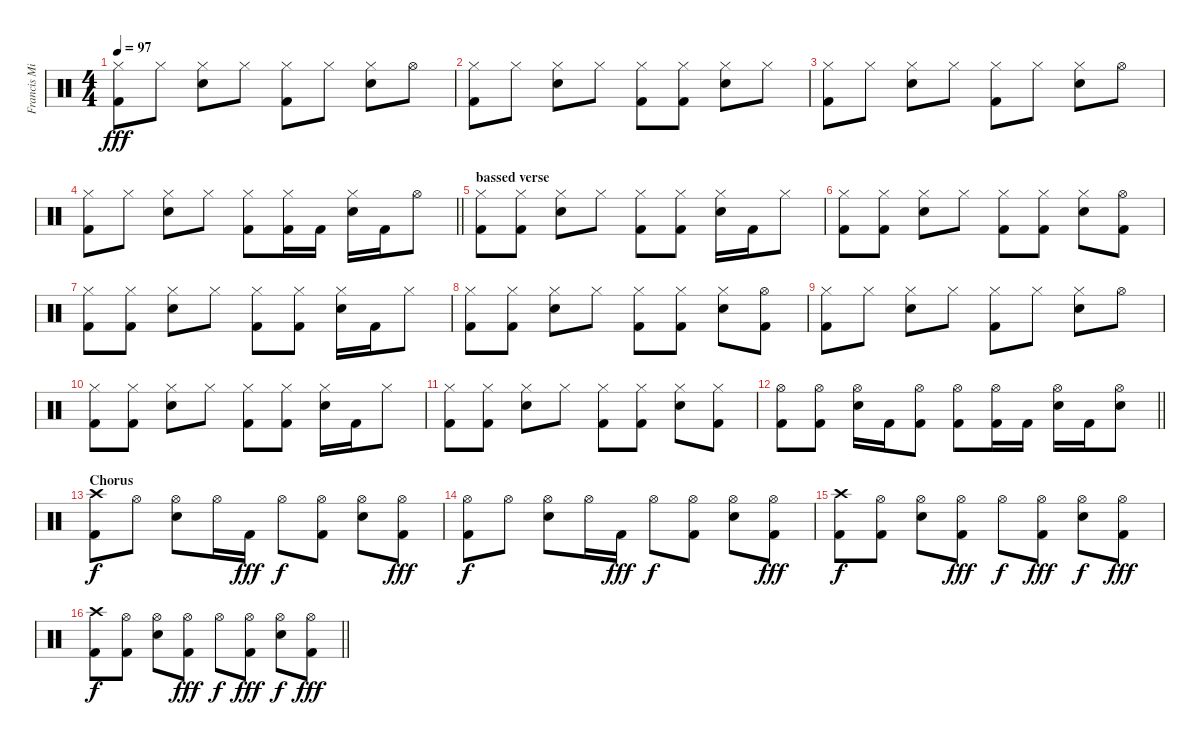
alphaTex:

\track ("Francis Mineau" "Francis Mi") {instrument percussion}
\staff {score}
\articulation defaults
\ts (4 4)
\tempo 97
\clef neutral
\ks c
("Hi-Hat (closed)" "Kick (hit) 2").8{dy fff} "Hi-Hat (closed)".8 ("Hi-Hat (closed)" "Snare (hit) 2").8 "Hi-Hat (closed)".8 ("Hi-Hat (closed)" "Kick (hit) 2").8 "Hi-Hat (closed)".8 ("Hi-Hat (closed)" "Snare (hit) 2").8 "Hi-Hat (open)".8 |
("Hi-Hat (closed)" "Kick (hit) 2").8 "Hi-Hat (closed)".8 ("Hi-Hat (closed)" "Snare (hit) 2").8 "Hi-Hat (closed)".8 ("Hi-Hat (closed)" "Kick (hit) 2").8 ("Hi-Hat (closed)" "Kick (hit) 2").8 ("Hi-Hat (closed)" "Snare (hit) 2").8 "Hi-Hat (closed)".8 |
("Hi-Hat (closed)" "Kick (hit) 2").8 "Hi-Hat (closed)".8 ("Hi-Hat (closed)" "Snare (hit) 2").8 "Hi-Hat (closed)".8 ("Hi-Hat (closed)" "Kick (hit) 2").8 "Hi-Hat (closed)".8 ("Hi-Hat (closed)" "Snare (hit) 2").8 "Hi-Hat (open)".8 |
\barLineRight lightlight
("Hi-Hat (closed)" "Kick (hit) 2").8 "Hi-Hat (closed)".8 ("Hi-Hat (closed)" "Snare (hit) 2").8 "Hi-Hat (closed)".8 ("Hi-Hat (closed)" "Kick (hit) 2").8 ("Hi-Hat (closed)" "Kick (hit) 2").16 "Kick (hit) 2".16 ("Hi-Hat (closed)" "Snare (hit) 2").16 "Kick (hit) 2".16 "Hi-Hat (open)".8 |
\section ("" "bassed verse")
("Hi-Hat (closed)" "Kick (hit) 2").8 ("Hi-Hat (closed)" "Kick (hit) 2").8 ("Hi-Hat (closed)" "Snare (hit) 2").8 "Hi-Hat (closed)".8 ("Hi-Hat (closed)" "Kick (hit) 2").8 ("Hi-Hat (closed)" "Kick (hit) 2").8 ("Hi-Hat (closed)" "Snare (hit) 2").16 "Kick (hit) 2".16 "Hi-Hat (closed)".8 |
("Hi-Hat (closed)" "Kick (hit) 2").8 ("Hi-Hat (closed)" "Kick (hit) 2").8 ("Hi-Hat (closed)" "Snare (hit) 2").8 "Hi-Hat (closed)".8 ("Hi-Hat (closed)" "Kick (hit) 2").8 ("Hi-Hat (closed)" "Kick (hit) 2").8 ("Hi-Hat (closed)" "Snare (hit) 2").8 ("Hi-Hat (open)" "Kick (hit) 2").8 |
("Hi-Hat (closed)" "Kick (hit) 2").8 ("Hi-Hat (closed)" "Kick (hit) 2").8 ("Hi-Hat (closed)" "Snare (hit) 2").8 "Hi-Hat (closed)".8 ("Hi-Hat (closed)" "Kick (hit) 2").8 ("Hi-Hat (closed)" "Kick (hit) 2").8 ("Hi-Hat (closed)" "Snare (hit) 2").16 "Kick (hit) 2".16 "Hi-Hat (closed)".8 |
("Hi-Hat (closed)" "Kick (hit) 2").8 ("Hi-Hat (closed)" "Kick (hit) 2").8 ("Hi-Hat (closed)" "Snare (hit) 2").8 "Hi-Hat (closed)".8 ("Hi-Hat (closed)" "Kick (hit) 2").8 ("Hi-Hat (closed)" "Kick (hit) 2").8 ("Hi-Hat (closed)" "Snare (hit) 2").8 ("Hi-Hat (open)" "Kick (hit) 2").8 |
("Hi-Hat (closed)" "Kick (hit) 2").8 "Hi-Hat (closed)".8 ("Hi-Hat (closed)" "Snare (hit) 2").8 "Hi-Hat (closed)".8 ("Hi-Hat (closed)" "Kick (hit) 2").8 "Hi-Hat (closed)".8 ("Hi-Hat (closed)" "Snare (hit) 2").8 "Hi-Hat (open)".8 |
("Hi-Hat (closed)" "Kick (hit) 2").8 ("Hi-Hat (closed)" "Kick (hit) 2").8 ("Hi-Hat (closed)" "Snare (hit) 2").8 "Hi-Hat (closed)".8 ("Hi-Hat (closed)" "Kick (hit) 2").8 ("Hi-Hat (closed)" "Kick (hit) 2").8 ("Hi-Hat (closed)" "Snare (hit) 2").16 "Kick (hit) 2".16 "Hi-Hat (closed)".8 |
("Hi-Hat (closed)" "Kick (hit) 2").8 ("Hi-Hat (closed)" "Kick (hit) 2").8 ("Hi-Hat (closed)" "Snare (hit) 2").8 "Hi-Hat (closed)".8 ("Hi-Hat (closed)" "Kick (hit) 2").8 ("Hi-Hat (closed)" "Kick (hit) 2").8 ("Hi-Hat (closed)" "Snare (hit) 2").8 ("Hi-Hat (closed)" "Kick (hit) 2").8 |
\barLineRight lightlight
("Hi-Hat (open)" "Kick (hit) 2").8 ("Hi-Hat (open)" "Kick (hit) 2").8 ("Hi-Hat (open)" "Snare (hit) 2").16 "Kick (hit) 2".16 ("Hi-Hat (open)" "Kick (hit) 2").8 ("Hi-Hat (open)" "Kick (hit) 2").8 ("Hi-Hat (open)" "Kick (hit) 2").16 "Kick (hit) 2".16 ("Hi-Hat (open)" "Snare (hit) 2").16 "Kick (hit) 2".16 ("Hi-Hat (open)" "Snare (hit) 2").8 |
\section ("" "Chorus")
("Crash high (hit)" "Kick (hit) 2").8{dy f} "Hi-Hat (open)".8 ("Hi-Hat (open)" "Snare (hit) 2").8 "Hi-Hat (open)".16 "Kick (hit) 2".16{dy fff} "Hi-Hat (open)".8{dy f} ("Hi-Hat (open)" "Kick (hit) 2").8 ("Hi-Hat (open)" "Snare (hit) 2").8 ("Hi-Hat (open)" "Kick (hit) 2").8{dy fff} |
("Hi-Hat (open)" "Kick (hit) 2").8{dy f} "Hi-Hat (open)".8 ("Hi-Hat (open)" "Snare (hit) 2").8 "Hi-Hat (open)".16 "Kick (hit) 2".16{dy fff} "Hi-Hat (open)".8{dy f} ("Hi-Hat (open)" "Kick (hit) 2").8 ("Hi-Hat (open)" "Snare (hit) 2").8 ("Hi-Hat (open)" "Kick (hit) 2").8{dy fff} |
("Crash high (hit)" "Kick (hit) 2").8{dy f} ("Hi-Hat (open)" "Kick (hit) 2").8 ("Hi-Hat (open)" "Snare (hit) 2").8 ("Hi-Hat (open)" "Kick (hit) 2").8{dy fff} "Hi-Hat (open)".8{dy f} ("Hi-Hat (open)" "Kick (hit) 2").8{dy fff} ("Hi-Hat (open)" "Snare (hit) 2").8{dy f} ("Hi-Hat (open)" "Kick (hit) 2").8{dy fff} |
\barLineRight lightlight
("Crash high (hit)" "Kick (hit) 2").8{dy f} ("Hi-Hat (open)" "Kick (hit) 2").8 ("Hi-Hat (open)" "Snare (hit) 2").8 ("Hi-Hat (open)" "Kick (hit) 2").8{dy fff} "Hi-Hat (open)".8{dy f} ("Hi-Hat (open)" "Kick (hit) 2").8{dy fff} ("Hi-Hat (open)" "Snare (hit) 2").8{dy f} ("Hi-Hat (open)" "Kick (hit) 2").8{dy fff}
